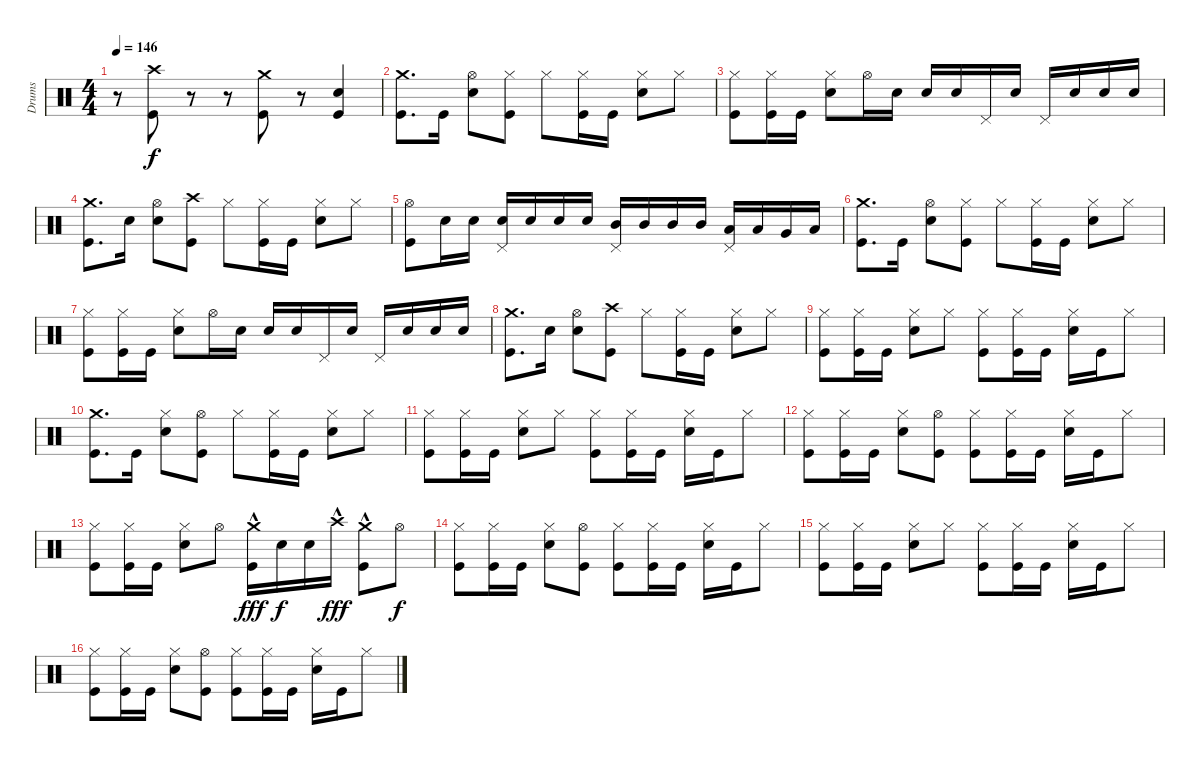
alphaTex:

\track ("Drums" "Drums") {instrument percussion}
\staff {score}
\articulation defaults
\ts (4 4)
\tempo 146
\clef neutral
\ks c
r.8{dy f} ("Crash high (hit)" "Kick (hit)").8 r.8 r.8 ("Crash medium (hit)" "Kick (hit)").8 r.8 ("Electric Snare (hit)" "Kick (hit)").4 |
("Crash medium (hit)" "Kick (hit)").8{d} "Kick (hit)".16 ("Hi-Hat (open)" "Electric Snare (hit)").8 ("Hi-Hat (closed)" "Kick (hit)").8 "Hi-Hat (closed)".8 ("Hi-Hat (closed)" "Kick (hit)").16 "Kick (hit)".16 ("Hi-Hat (closed)" "Electric Snare (hit)").8 "Hi-Hat (closed)".8 |
("Hi-Hat (closed)" "Kick (hit)").8 ("Hi-Hat (closed)" "Kick (hit)").16 "Kick (hit)".16 ("Hi-Hat (closed)" "Electric Snare (hit)").8 "Hi-Hat (open)".16 "Electric Snare (hit)".16 "Electric Snare (hit)".16 "Electric Snare (hit)".16 "Pedal Hi-Hat (hit)".16 "Electric Snare (hit)".16 "Pedal Hi-Hat (hit)".16 "Electric Snare (hit)".16 "Electric Snare (hit)".16 "Electric Snare (hit)".16 |
("Crash medium (hit)" "Kick (hit)").8{d} "Electric Snare (hit)".16 ("Hi-Hat (open)" "Electric Snare (hit)").8 ("Crash high (hit)" "Kick (hit)").8 "Hi-Hat (closed)".8 ("Hi-Hat (closed)" "Kick (hit)").16 "Kick (hit)".16 ("Hi-Hat (closed)" "Electric Snare (hit)").8 "Hi-Hat (closed)".8 |
("Hi-Hat (open)" "Kick (hit)").8 "Electric Snare (hit)".16 "Electric Snare (hit)".16 ("Pedal Hi-Hat (hit)" "Electric Snare (hit)").16 "Electric Snare (hit)".16 "Electric Snare (hit)".16 "Electric Snare (hit)".16 ("Pedal Hi-Hat (hit)" "Mid Tom (hit)").16 "Mid Tom (hit)".16 "Mid Tom (hit)".16 "Mid Tom (hit)".16 ("Pedal Hi-Hat (hit)" "Low Tom (hit)").16 "Low Tom (hit)".16 "Very Low Tom (hit)".16 "Low Floor Tom (hit)".16 |
("Crash medium (hit)" "Kick (hit)").8{d} "Kick (hit)".16 ("Hi-Hat (open)" "Electric Snare (hit)").8 ("Hi-Hat (closed)" "Kick (hit)").8 "Hi-Hat (closed)".8 ("Hi-Hat (closed)" "Kick (hit)").16 "Kick (hit)".16 ("Hi-Hat (closed)" "Electric Snare (hit)").8 "Hi-Hat (closed)".8 |
("Hi-Hat (closed)" "Kick (hit)").8 ("Hi-Hat (closed)" "Kick (hit)").16 "Kick (hit)".16 ("Hi-Hat (closed)" "Electric Snare (hit)").8 "Hi-Hat (open)".16 "Electric Snare (hit)".16 "Electric Snare (hit)".16 "Electric Snare (hit)".16 "Pedal Hi-Hat (hit)".16 "Electric Snare (hit)".16 "Pedal Hi-Hat (hit)".16 "Electric Snare (hit)".16 "Electric Snare (hit)".16 "Electric Snare (hit)".16 |
("Crash medium (hit)" "Kick (hit)").8{d} "Electric Snare (hit)".16 ("Hi-Hat (open)" "Electric Snare (hit)").8 ("Crash high (hit)" "Kick (hit)").8 "Hi-Hat (closed)".8 ("Hi-Hat (closed)" "Kick (hit)").16 "Kick (hit)".16 ("Hi-Hat (closed)" "Electric Snare (hit)").8 "Hi-Hat (closed)".8 |
("Hi-Hat (closed)" "Kick (hit)").8 ("Hi-Hat (closed)" "Kick (hit)").16 "Kick (hit)".16 ("Hi-Hat (closed)" "Electric Snare (hit)").8 "Hi-Hat (closed)".8 ("Hi-Hat (closed)" "Kick (hit)").8 ("Hi-Hat (closed)" "Kick (hit)").16 "Kick (hit)".16 ("Hi-Hat (closed)" "Electric Snare (hit)").16 "Kick (hit)".16 "Hi-Hat (closed)".8 |
("Crash medium (hit)" "Kick (hit)").8{d} "Kick (hit)".16 ("Hi-Hat (closed)" "Electric Snare (hit)").8 ("Hi-Hat (open)" "Kick (hit)").8 "Hi-Hat (closed)".8 ("Hi-Hat (closed)" "Kick (hit)").16 "Kick (hit)".16 ("Hi-Hat (closed)" "Electric Snare (hit)").8 "Hi-Hat (closed)".8 |
("Hi-Hat (closed)" "Kick (hit)").8 ("Hi-Hat (closed)" "Kick (hit)").16 "Kick (hit)".16 ("Hi-Hat (closed)" "Electric Snare (hit)").8 "Hi-Hat (closed)".8 ("Hi-Hat (closed)" "Kick (hit)").8 ("Hi-Hat (closed)" "Kick (hit)").16 "Kick (hit)".16 ("Hi-Hat (closed)" "Electric Snare (hit)").16 "Kick (hit)".16 "Hi-Hat (closed)".8 |
("Hi-Hat (closed)" "Kick (hit)").8 ("Hi-Hat (closed)" "Kick (hit)").16 "Kick (hit)".16 ("Hi-Hat (closed)" "Electric Snare (hit)").8 ("Hi-Hat (open)" "Kick (hit)").8 ("Hi-Hat (closed)" "Kick (hit)").8 ("Hi-Hat (closed)" "Kick (hit)").16 "Kick (hit)".16 ("Hi-Hat (closed)" "Electric Snare (hit)").16 "Kick (hit)".16 "Hi-Hat (closed)".8 |
("Hi-Hat (closed)" "Kick (hit)").8 ("Hi-Hat (closed)" "Kick (hit)").16 "Kick (hit)".16 ("Hi-Hat (closed)" "Electric Snare (hit)").8 "Hi-Hat (open)".8 ("Crash medium (hit)"{hac} "Kick (hit)").16{dy fff} "Electric Snare (hit)".16{dy f} "Electric Snare (hit)".16 "Crash high (hit)"{hac}.16{dy fff} ("Crash medium (hit)"{hac} "Kick (hit)").8 "Hi-Hat (open)".8{dy f} |
("Hi-Hat (closed)" "Kick (hit)").8 ("Hi-Hat (closed)" "Kick (hit)").16 "Kick (hit)".16 ("Hi-Hat (closed)" "Electric Snare (hit)").8 ("Hi-Hat (open)" "Kick (hit)").8 ("Hi-Hat (closed)" "Kick (hit)").8 ("Hi-Hat (closed)" "Kick (hit)").16 "Kick (hit)".16 ("Hi-Hat (closed)" "Electric Snare (hit)").16 "Kick (hit)".16 "Hi-Hat (closed)".8 |
("Hi-Hat (closed)" "Kick (hit)").8 ("Hi-Hat (closed)" "Kick (hit)").16 "Kick (hit)".16 ("Hi-Hat (closed)" "Electric Snare (hit)").8 "Hi-Hat (closed)".8 ("Hi-Hat (closed)" "Kick (hit)").8 ("Hi-Hat (closed)" "Kick (hit)").16 "Kick (hit)".16 ("Hi-Hat (closed)" "Electric Snare (hit)").16 "Kick (hit)".16 "Hi-Hat (closed)".8 |
("Hi-Hat (closed)" "Kick (hit)").8 ("Hi-Hat (closed)" "Kick (hit)").16 "Kick (hit)".16 ("Hi-Hat (closed)" "Electric Snare (hit)").8 ("Hi-Hat (open)" "Kick (hit)").8 ("Hi-Hat (closed)" "Kick (hit)").8 ("Hi-Hat (closed)" "Kick (hit)").16 "Kick (hit)".16 ("Hi-Hat (closed)" "Electric Snare (hit)").16 "Kick (hit)".16 "Hi-Hat (closed)".8
